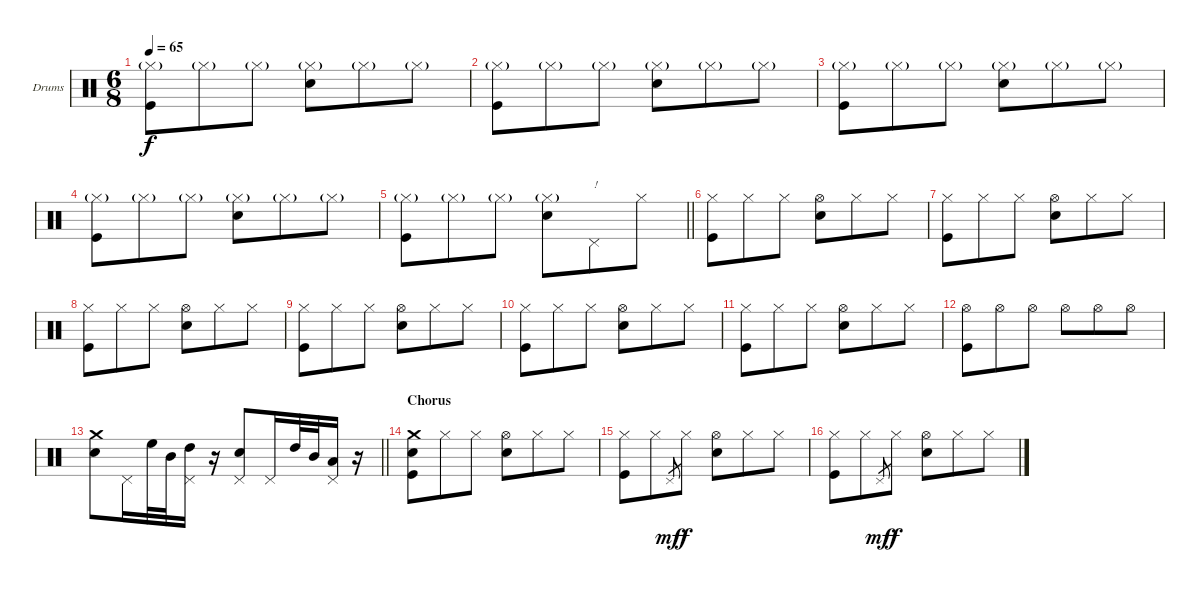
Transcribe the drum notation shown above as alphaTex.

\bracketExtendMode groupsimilarinstruments
\firstSystemTrackNameOrientation horizontal
\otherSystemsTrackNameOrientation horizontal
\track ("Drumkit" "Drums") {instrument percussion}
\staff {score}
\articulation defaults
\ts (6 8)
\tempo 65
\clef neutral
\ks c
("Hi-Hat (closed)"{g} "Kick (hit)").8{dy f} "Hi-Hat (closed)"{g}.8 "Hi-Hat (closed)"{g}.8 ("Hi-Hat (closed)"{g} "Snare (hit) 2").8 "Hi-Hat (closed)"{g}.8 "Hi-Hat (closed)"{g}.8 |
("Hi-Hat (closed)"{g} "Kick (hit)").8 "Hi-Hat (closed)"{g}.8 "Hi-Hat (closed)"{g}.8 ("Hi-Hat (closed)"{g} "Snare (hit) 2").8 "Hi-Hat (closed)"{g}.8 "Hi-Hat (closed)"{g}.8 |
("Hi-Hat (closed)"{g} "Kick (hit)").8 "Hi-Hat (closed)"{g}.8 "Hi-Hat (closed)"{g}.8 ("Hi-Hat (closed)"{g} "Snare (hit) 2").8 "Hi-Hat (closed)"{g}.8 "Hi-Hat (closed)"{g}.8 |
("Hi-Hat (closed)"{g} "Kick (hit)").8 "Hi-Hat (closed)"{g}.8 "Hi-Hat (closed)"{g}.8 ("Hi-Hat (closed)"{g} "Snare (hit) 2").8 "Hi-Hat (closed)"{g}.8 "Hi-Hat (closed)"{g}.8 |
\barLineRight lightlight
("Hi-Hat (closed)"{g} "Kick (hit)").8 "Hi-Hat (closed)"{g}.8 "Hi-Hat (closed)"{g}.8 ("Hi-Hat (closed)"{g} "Snare (hit) 2").8 "Pedal Hi-Hat (hit)".8{txt "!"} "Hi-Hat (closed)".8 |
\section ("" "")
("Hi-Hat (closed)" "Kick (hit)").8 "Hi-Hat (closed)".8 "Hi-Hat (closed)".8 ("Hi-Hat (open)" "Snare (hit) 2").8 "Hi-Hat (closed)".8 "Hi-Hat (closed)".8 |
("Hi-Hat (closed)" "Kick (hit)").8 "Hi-Hat (closed)".8 "Hi-Hat (closed)".8 ("Hi-Hat (open)" "Snare (hit) 2").8 "Hi-Hat (closed)".8 "Hi-Hat (closed)".8 |
("Hi-Hat (closed)" "Kick (hit)").8 "Hi-Hat (closed)".8 "Hi-Hat (closed)".8 ("Hi-Hat (open)" "Snare (hit) 2").8 "Hi-Hat (closed)".8 "Hi-Hat (closed)".8 |
("Hi-Hat (closed)" "Kick (hit)").8 "Hi-Hat (closed)".8 "Hi-Hat (closed)".8 ("Hi-Hat (open)" "Snare (hit) 2").8 "Hi-Hat (closed)".8 "Hi-Hat (closed)".8 |
("Hi-Hat (closed)" "Kick (hit)").8 "Hi-Hat (closed)".8 "Hi-Hat (closed)".8 ("Hi-Hat (open)" "Snare (hit) 2").8 "Hi-Hat (closed)".8 "Hi-Hat (closed)".8 |
("Hi-Hat (closed)" "Kick (hit)").8 "Hi-Hat (closed)".8 "Hi-Hat (closed)".8 ("Hi-Hat (open)" "Snare (hit) 2").8 "Hi-Hat (closed)".8 "Hi-Hat (closed)".8 |
("Hi-Hat (open)" "Kick (hit)").8 "Hi-Hat (open)".8 "Hi-Hat (open)".8 "Hi-Hat (open)".8 "Hi-Hat (open)".8 "Hi-Hat (open)".8 |
\barLineRight lightlight
("Crash medium (hit)" "Snare (hit) 2").8 "Pedal Hi-Hat (hit)".16 "High Floor Tom (hit)".32 "Mid Tom (hit)".32 ("High Tom (hit)" "Pedal Hi-Hat (hit)").16 r.16 ("Snare (hit) 2" "Pedal Hi-Hat (hit)").8 "Pedal Hi-Hat (hit)".16 "High Tom (hit)".32 "Mid Tom (hit)".32 ("Low Tom (hit)" "Pedal Hi-Hat (hit)").16 r.16 |
\section ("" "Chorus")
("Crash medium (hit)" "Snare (hit) 2" "Kick (hit)").8 "Hi-Hat (closed)".8 "Hi-Hat (closed)".8 ("Hi-Hat (open)" "Snare (hit) 2").8 "Hi-Hat (closed)".8 "Hi-Hat (closed)".8 |
("Hi-Hat (closed)" "Kick (hit)").8 "Hi-Hat (closed)".8 "Pedal Hi-Hat (hit)".8{gr dy mf} "Hi-Hat (closed)".8{dy f} ("Hi-Hat (open)" "Snare (hit) 2").8 "Hi-Hat (closed)".8 "Hi-Hat (closed)".8 |
("Hi-Hat (closed)" "Kick (hit)").8 "Hi-Hat (closed)".8 "Pedal Hi-Hat (hit)".8{gr dy mf} "Hi-Hat (closed)".8{dy f} ("Hi-Hat (open)" "Snare (hit) 2").8 "Hi-Hat (closed)".8 "Hi-Hat (closed)".8
